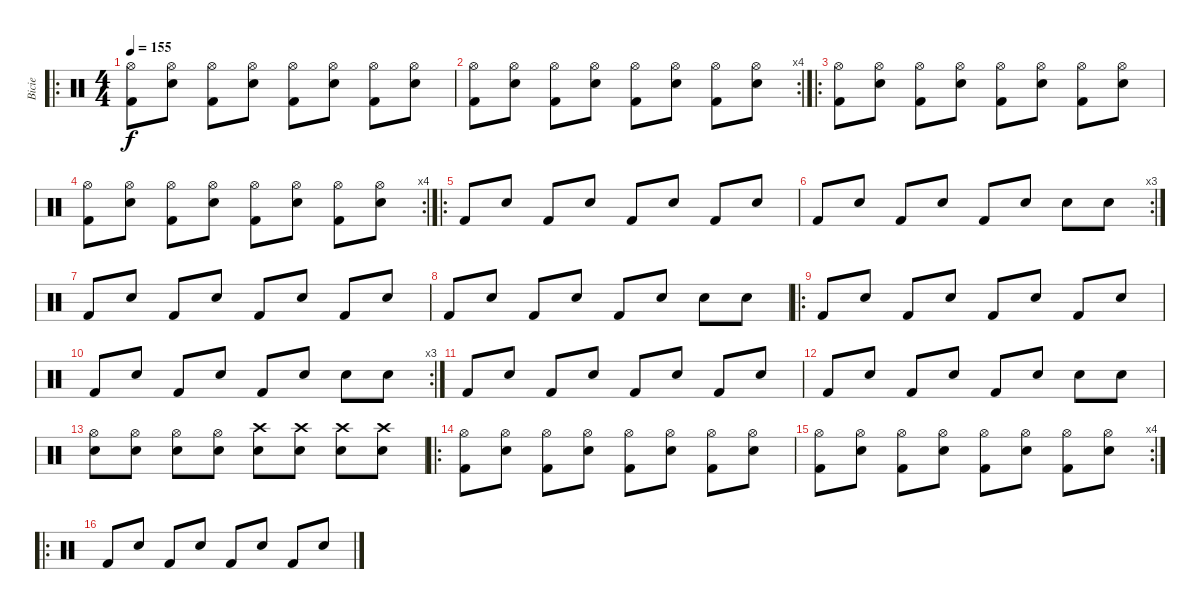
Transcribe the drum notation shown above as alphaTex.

\track ("Bicie" "Bicie") {instrument percussion}
\staff {score}
\articulation defaults
\ro
\ts (4 4)
\tempo 155
\clef neutral
\ks c
("Hi-Hat (open)" "Kick (hit) 2").8{dy f} ("Hi-Hat (open)" "Snare (hit) 2").8 ("Hi-Hat (open)" "Kick (hit) 2").8 ("Hi-Hat (open)" "Snare (hit) 2").8 ("Hi-Hat (open)" "Kick (hit) 2").8 ("Hi-Hat (open)" "Snare (hit) 2").8 ("Hi-Hat (open)" "Kick (hit) 2").8 ("Hi-Hat (open)" "Snare (hit) 2").8 |
\rc 4
("Hi-Hat (open)" "Kick (hit) 2").8 ("Hi-Hat (open)" "Snare (hit) 2").8 ("Hi-Hat (open)" "Kick (hit) 2").8 ("Hi-Hat (open)" "Snare (hit) 2").8 ("Hi-Hat (open)" "Kick (hit) 2").8 ("Hi-Hat (open)" "Snare (hit) 2").8 ("Hi-Hat (open)" "Kick (hit) 2").8 ("Hi-Hat (open)" "Snare (hit) 2").8 |
\ro
("Hi-Hat (open)" "Kick (hit) 2").8 ("Hi-Hat (open)" "Snare (hit) 2").8 ("Hi-Hat (open)" "Kick (hit) 2").8 ("Hi-Hat (open)" "Snare (hit) 2").8 ("Hi-Hat (open)" "Kick (hit) 2").8 ("Hi-Hat (open)" "Snare (hit) 2").8 ("Hi-Hat (open)" "Kick (hit) 2").8 ("Hi-Hat (open)" "Snare (hit) 2").8 |
\rc 4
("Hi-Hat (open)" "Kick (hit) 2").8 ("Hi-Hat (open)" "Snare (hit) 2").8 ("Hi-Hat (open)" "Kick (hit) 2").8 ("Hi-Hat (open)" "Snare (hit) 2").8 ("Hi-Hat (open)" "Kick (hit) 2").8 ("Hi-Hat (open)" "Snare (hit) 2").8 ("Hi-Hat (open)" "Kick (hit) 2").8 ("Hi-Hat (open)" "Snare (hit) 2").8 |
\ro "Kick (hit) 2".8 "Snare (hit) 2".8 "Kick (hit) 2".8 "Snare (hit) 2".8 "Kick (hit) 2".8 "Snare (hit) 2".8 "Kick (hit) 2".8 "Snare (hit) 2".8
|
\rc 3 "Kick (hit) 2".8 "Snare (hit) 2".8 "Kick (hit) 2".8 "Snare (hit) 2".8 "Kick (hit) 2".8 "Snare (hit) 2".8 "Snare (hit) 2".8 "Snare (hit) 2".8
|
"Kick (hit) 2".8 "Snare (hit) 2".8 "Kick (hit) 2".8 "Snare (hit) 2".8 "Kick (hit) 2".8 "Snare (hit) 2".8 "Kick (hit) 2".8 "Snare (hit) 2".8 |
"Kick (hit) 2".8 "Snare (hit) 2".8 "Kick (hit) 2".8 "Snare (hit) 2".8 "Kick (hit) 2".8 "Snare (hit) 2".8 "Snare (hit) 2".8 "Snare (hit) 2".8 |
\ro "Kick (hit) 2".8 "Snare (hit) 2".8 "Kick (hit) 2".8 "Snare (hit) 2".8 "Kick (hit) 2".8 "Snare (hit) 2".8 "Kick (hit) 2".8 "Snare (hit) 2".8
|
\rc 3 "Kick (hit) 2".8 "Snare (hit) 2".8 "Kick (hit) 2".8 "Snare (hit) 2".8 "Kick (hit) 2".8 "Snare (hit) 2".8 "Snare (hit) 2".8 "Snare (hit) 2".8
|
"Kick (hit) 2".8 "Snare (hit) 2".8 "Kick (hit) 2".8 "Snare (hit) 2".8 "Kick (hit) 2".8 "Snare (hit) 2".8 "Kick (hit) 2".8 "Snare (hit) 2".8 |
"Kick (hit) 2".8 "Snare (hit) 2".8 "Kick (hit) 2".8 "Snare (hit) 2".8 "Kick (hit) 2".8 "Snare (hit) 2".8 "Snare (hit) 2".8 "Snare (hit) 2".8 |
("Hi-Hat (open)" "Snare (hit) 2").8 ("Hi-Hat (open)" "Snare (hit) 2").8 ("Hi-Hat (open)" "Snare (hit) 2").8 ("Hi-Hat (open)" "Snare (hit) 2").8 ("Crash high (hit)" "Snare (hit) 2").8 ("Crash high (hit)" "Snare (hit) 2").8 ("Crash high (hit)" "Snare (hit) 2").8 ("Crash high (hit)" "Snare (hit) 2").8 |
\ro
("Hi-Hat (open)" "Kick (hit) 2").8 ("Hi-Hat (open)" "Snare (hit) 2").8 ("Hi-Hat (open)" "Kick (hit) 2").8 ("Hi-Hat (open)" "Snare (hit) 2").8 ("Hi-Hat (open)" "Kick (hit) 2").8 ("Hi-Hat (open)" "Snare (hit) 2").8 ("Hi-Hat (open)" "Kick (hit) 2").8 ("Hi-Hat (open)" "Snare (hit) 2").8 |
\rc 4
("Hi-Hat (open)" "Kick (hit) 2").8 ("Hi-Hat (open)" "Snare (hit) 2").8 ("Hi-Hat (open)" "Kick (hit) 2").8 ("Hi-Hat (open)" "Snare (hit) 2").8 ("Hi-Hat (open)" "Kick (hit) 2").8 ("Hi-Hat (open)" "Snare (hit) 2").8 ("Hi-Hat (open)" "Kick (hit) 2").8 ("Hi-Hat (open)" "Snare (hit) 2").8 |
\ro "Kick (hit) 2".8 "Snare (hit) 2".8 "Kick (hit) 2".8 "Snare (hit) 2".8 "Kick (hit) 2".8 "Snare (hit) 2".8 "Kick (hit) 2".8 "Snare (hit) 2".8
